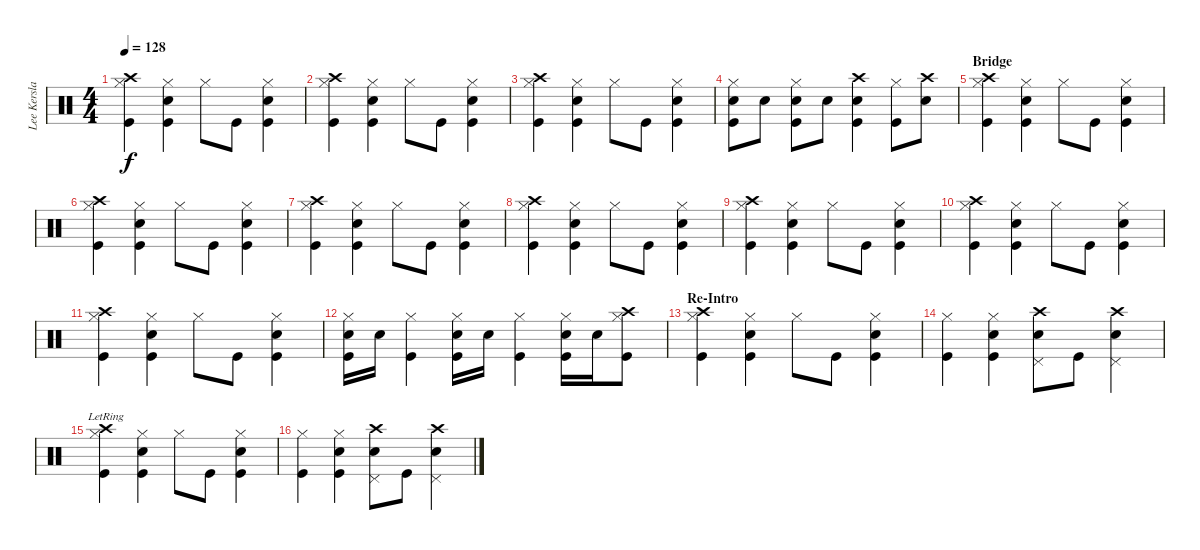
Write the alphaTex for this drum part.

\track ("Lee Kerslake (Drums)" "Lee Kersla") {instrument percussion}
\staff {score}
\articulation defaults
\ts (4 4)
\tempo 128
\clef neutral
\ks c
("Crash high (hit)" "Hi-Hat (closed)" "Kick (hit)").4{dy f} ("Hi-Hat (closed)" "Kick (hit)" "Electric Snare (hit)").4 "Hi-Hat (closed)".8 "Kick (hit)".8 ("Hi-Hat (closed)" "Electric Snare (hit)" "Kick (hit)").4 |
("Crash high (hit)" "Hi-Hat (closed)" "Kick (hit)").4 ("Hi-Hat (closed)" "Kick (hit)" "Electric Snare (hit)").4 "Hi-Hat (closed)".8 "Kick (hit)".8 ("Hi-Hat (closed)" "Electric Snare (hit)" "Kick (hit)").4 |
("Crash high (hit)" "Hi-Hat (closed)" "Kick (hit)").4 ("Hi-Hat (closed)" "Kick (hit)" "Electric Snare (hit)").4 "Hi-Hat (closed)".8 "Kick (hit)".8 ("Hi-Hat (closed)" "Electric Snare (hit)" "Kick (hit)").4 |
("Hi-Hat (closed)" "Kick (hit)" "Electric Snare (hit)").8 "Electric Snare (hit)".8 ("Hi-Hat (closed)" "Kick (hit)" "Electric Snare (hit)").8 "Electric Snare (hit)".8 ("Kick (hit)" "Crash high (hit)" "Electric Snare (hit)").4 ("Hi-Hat (closed)" "Kick (hit)").8 ("Electric Snare (hit)" "Crash high (hit)").8 |
\section ("" "Bridge")
("Crash high (hit)" "Hi-Hat (closed)" "Kick (hit)").4 ("Hi-Hat (closed)" "Kick (hit)" "Electric Snare (hit)").4 "Hi-Hat (closed)".8 "Kick (hit)".8 ("Hi-Hat (closed)" "Electric Snare (hit)" "Kick (hit)").4 |
("Crash high (hit)" "Hi-Hat (closed)" "Kick (hit)").4 ("Hi-Hat (closed)" "Kick (hit)" "Electric Snare (hit)").4 "Hi-Hat (closed)".8 "Kick (hit)".8 ("Hi-Hat (closed)" "Electric Snare (hit)" "Kick (hit)").4 |
("Crash high (hit)" "Hi-Hat (closed)" "Kick (hit)").4 ("Hi-Hat (closed)" "Kick (hit)" "Electric Snare (hit)").4 "Hi-Hat (closed)".8 "Kick (hit)".8 ("Hi-Hat (closed)" "Electric Snare (hit)" "Kick (hit)").4 |
("Crash high (hit)" "Hi-Hat (closed)" "Kick (hit)").4 ("Hi-Hat (closed)" "Kick (hit)" "Electric Snare (hit)").4 "Hi-Hat (closed)".8 "Kick (hit)".8 ("Hi-Hat (closed)" "Electric Snare (hit)" "Kick (hit)").4 |
("Crash high (hit)" "Hi-Hat (closed)" "Kick (hit)").4 ("Hi-Hat (closed)" "Kick (hit)" "Electric Snare (hit)").4 "Hi-Hat (closed)".8 "Kick (hit)".8 ("Hi-Hat (closed)" "Electric Snare (hit)" "Kick (hit)").4 |
("Crash high (hit)" "Hi-Hat (closed)" "Kick (hit)").4 ("Hi-Hat (closed)" "Kick (hit)" "Electric Snare (hit)").4 "Hi-Hat (closed)".8 "Kick (hit)".8 ("Hi-Hat (closed)" "Electric Snare (hit)" "Kick (hit)").4 |
("Crash high (hit)" "Hi-Hat (closed)" "Kick (hit)").4 ("Hi-Hat (closed)" "Kick (hit)" "Electric Snare (hit)").4 "Hi-Hat (closed)".8 "Kick (hit)".8 ("Hi-Hat (closed)" "Electric Snare (hit)" "Kick (hit)").4 |
("Electric Snare (hit)" "Kick (hit)" "Hi-Hat (closed)").16 "Electric Snare (hit)".16 ("Kick (hit)" "Hi-Hat (closed)").4 ("Electric Snare (hit)" "Kick (hit)" "Hi-Hat (closed)").16 "Electric Snare (hit)".16 ("Kick (hit)" "Hi-Hat (closed)").4 ("Electric Snare (hit)" "Kick (hit)" "Hi-Hat (closed)").16 "Electric Snare (hit)".16 ("Crash high (hit)" "Kick (hit)" "Hi-Hat (closed)").8 |
\section ("" "Re-Intro")
("Crash high (hit)" "Hi-Hat (closed)" "Kick (hit)").4 ("Hi-Hat (closed)" "Kick (hit)" "Electric Snare (hit)").4 "Hi-Hat (closed)".8 "Kick (hit)".8 ("Hi-Hat (closed)" "Electric Snare (hit)" "Kick (hit)").4 |
("Hi-Hat (closed)" "Kick (hit)").4 ("Hi-Hat (closed)" "Kick (hit)" "Electric Snare (hit)").4 ("Crash high (hit)" "Electric Snare (hit)" "Pedal Hi-Hat (hit)").8 "Kick (hit)".8 ("Crash high (hit)" "Electric Snare (hit)" "Pedal Hi-Hat (hit)").4 |
("Crash high (hit)"{lr} "Hi-Hat (closed)" "Kick (hit)").4 ("Hi-Hat (closed)" "Kick (hit)" "Electric Snare (hit)").4 "Hi-Hat (closed)".8 "Kick (hit)".8 ("Hi-Hat (closed)" "Electric Snare (hit)" "Kick (hit)").4 |
("Hi-Hat (closed)" "Kick (hit)").4 ("Hi-Hat (closed)" "Kick (hit)" "Electric Snare (hit)").4 ("Crash high (hit)" "Electric Snare (hit)" "Pedal Hi-Hat (hit)").8 "Kick (hit)".8 ("Crash high (hit)" "Electric Snare (hit)" "Pedal Hi-Hat (hit)").4
